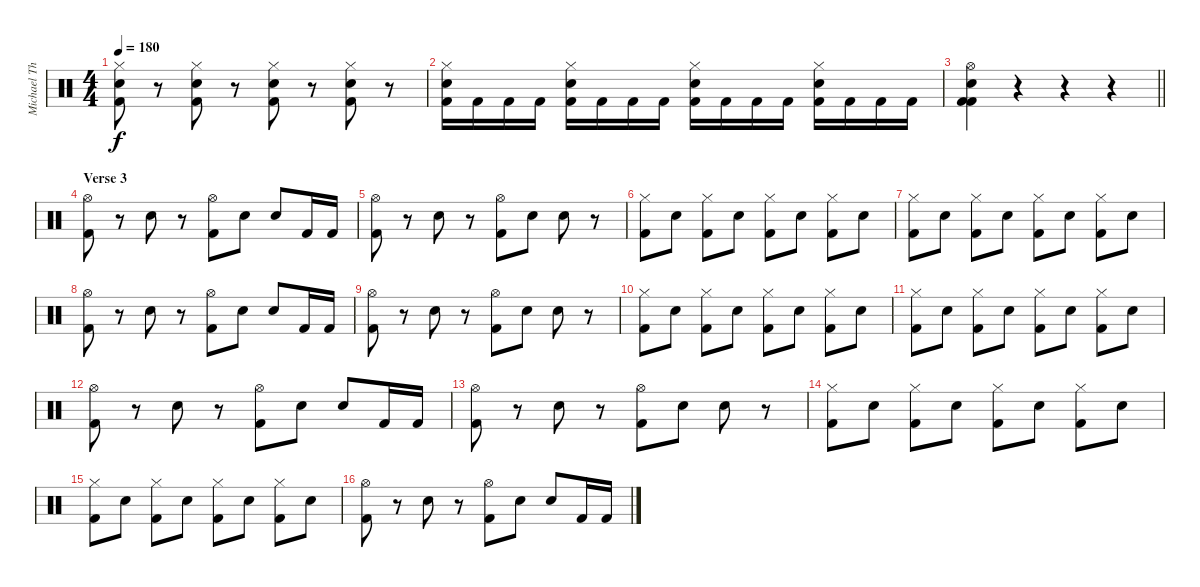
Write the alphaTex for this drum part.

\track ("Michael Thomas" "Michael Th") {instrument percussion}
\staff
\articulation defaults
\ts (4 4)
\tempo 180
\clef neutral
\ks c
("Hi-Hat (closed)" "Electric Snare (hit)" "Kick (hit) 2").8{dy f} r.8 ("Hi-Hat (closed)" "Electric Snare (hit)" "Kick (hit) 2").8 r.8 ("Hi-Hat (closed)" "Electric Snare (hit)" "Kick (hit) 2").8 r.8 ("Hi-Hat (closed)" "Electric Snare (hit)" "Kick (hit) 2").8 r.8 |
("Hi-Hat (closed)" "Electric Snare (hit)" "Kick (hit) 2").16 "Kick (hit) 2".16 "Kick (hit) 2".16 "Kick (hit) 2".16 ("Hi-Hat (closed)" "Electric Snare (hit)" "Kick (hit) 2").16 "Kick (hit) 2".16 "Kick (hit) 2".16 "Kick (hit) 2".16 ("Hi-Hat (closed)" "Electric Snare (hit)" "Kick (hit) 2").16 "Kick (hit) 2".16 "Kick (hit) 2".16 "Kick (hit) 2".16 ("Hi-Hat (closed)" "Electric Snare (hit)" "Kick (hit) 2").16 "Kick (hit) 2".16 "Kick (hit) 2".16 "Kick (hit) 2".16 |
\barLineRight lightlight
("Hi-Hat (open)" "Electric Snare (hit)" "Kick (hit) 2" "Kick (hit) 2").4 r.4 r.4 r.4 |
\section ("" "Verse 3")
("Hi-Hat (open)" "Kick (hit) 2").8 r.8 "Electric Snare (hit)".8 r.8 ("Hi-Hat (open)" "Kick (hit) 2").8 "Electric Snare (hit)".8 "Electric Snare (hit)".8 "Kick (hit) 2".16 "Kick (hit) 2".16 |
("Hi-Hat (open)" "Kick (hit) 2").8 r.8 "Electric Snare (hit)".8 r.8 ("Hi-Hat (open)" "Kick (hit) 2").8 "Electric Snare (hit)".8 "Electric Snare (hit)".8 r.8 |
("Hi-Hat (closed)" "Kick (hit) 2").8 "Electric Snare (hit)".8 ("Hi-Hat (closed)" "Kick (hit) 2").8 "Electric Snare (hit)".8 ("Hi-Hat (closed)" "Kick (hit) 2").8 "Electric Snare (hit)".8 ("Hi-Hat (closed)" "Kick (hit) 2").8 "Electric Snare (hit)".8 |
("Hi-Hat (closed)" "Kick (hit) 2").8 "Electric Snare (hit)".8 ("Hi-Hat (closed)" "Kick (hit) 2").8 "Electric Snare (hit)".8 ("Hi-Hat (closed)" "Kick (hit) 2").8 "Electric Snare (hit)".8 ("Hi-Hat (closed)" "Kick (hit) 2").8 "Electric Snare (hit)".8 |
("Hi-Hat (open)" "Kick (hit) 2").8 r.8 "Electric Snare (hit)".8 r.8 ("Hi-Hat (open)" "Kick (hit) 2").8 "Electric Snare (hit)".8 "Electric Snare (hit)".8 "Kick (hit) 2".16 "Kick (hit) 2".16 |
("Hi-Hat (open)" "Kick (hit) 2").8 r.8 "Electric Snare (hit)".8 r.8 ("Hi-Hat (open)" "Kick (hit) 2").8 "Electric Snare (hit)".8 "Electric Snare (hit)".8 r.8 |
("Hi-Hat (closed)" "Kick (hit) 2").8 "Electric Snare (hit)".8 ("Hi-Hat (closed)" "Kick (hit) 2").8 "Electric Snare (hit)".8 ("Hi-Hat (closed)" "Kick (hit) 2").8 "Electric Snare (hit)".8 ("Hi-Hat (closed)" "Kick (hit) 2").8 "Electric Snare (hit)".8 |
("Hi-Hat (closed)" "Kick (hit) 2").8 "Electric Snare (hit)".8 ("Hi-Hat (closed)" "Kick (hit) 2").8 "Electric Snare (hit)".8 ("Hi-Hat (closed)" "Kick (hit) 2").8 "Electric Snare (hit)".8 ("Hi-Hat (closed)" "Kick (hit) 2").8 "Electric Snare (hit)".8 |
("Hi-Hat (open)" "Kick (hit) 2").8 r.8 "Electric Snare (hit)".8 r.8 ("Hi-Hat (open)" "Kick (hit) 2").8 "Electric Snare (hit)".8 "Electric Snare (hit)".8 "Kick (hit) 2".16 "Kick (hit) 2".16 |
("Hi-Hat (open)" "Kick (hit) 2").8 r.8 "Electric Snare (hit)".8 r.8 ("Hi-Hat (open)" "Kick (hit) 2").8 "Electric Snare (hit)".8 "Electric Snare (hit)".8 r.8 |
("Hi-Hat (closed)" "Kick (hit) 2").8 "Electric Snare (hit)".8 ("Hi-Hat (closed)" "Kick (hit) 2").8 "Electric Snare (hit)".8 ("Hi-Hat (closed)" "Kick (hit) 2").8 "Electric Snare (hit)".8 ("Hi-Hat (closed)" "Kick (hit) 2").8 "Electric Snare (hit)".8 |
("Hi-Hat (closed)" "Kick (hit) 2").8 "Electric Snare (hit)".8 ("Hi-Hat (closed)" "Kick (hit) 2").8 "Electric Snare (hit)".8 ("Hi-Hat (closed)" "Kick (hit) 2").8 "Electric Snare (hit)".8 ("Hi-Hat (closed)" "Kick (hit) 2").8 "Electric Snare (hit)".8 |
("Hi-Hat (open)" "Kick (hit) 2").8 r.8 "Electric Snare (hit)".8 r.8 ("Hi-Hat (open)" "Kick (hit) 2").8 "Electric Snare (hit)".8 "Electric Snare (hit)".8 "Kick (hit) 2".16 "Kick (hit) 2".16
